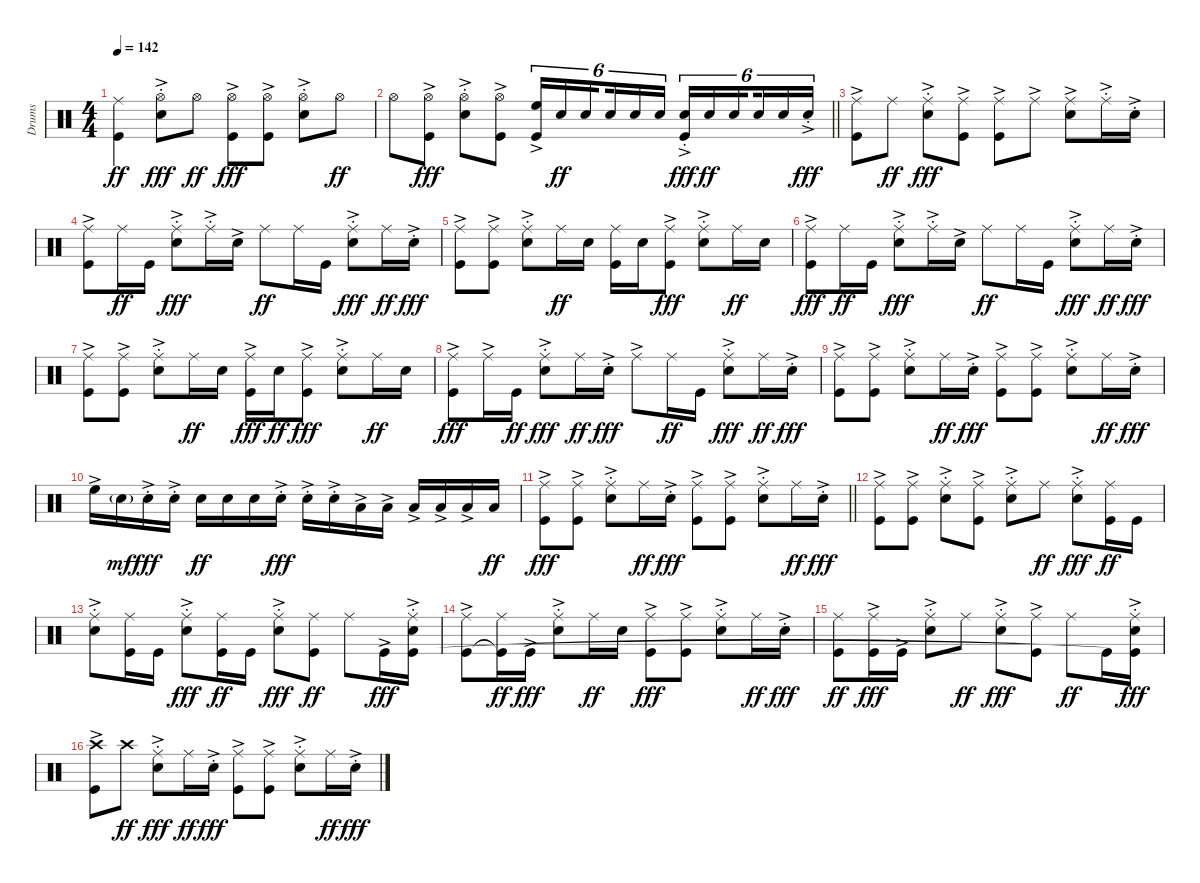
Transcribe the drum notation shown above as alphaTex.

\track ("Drums" "Drums") {instrument percussion}
\staff {score}
\articulation defaults
\ts (4 4)
\tempo 142
\clef neutral
\ks c
("Ride (middle)" "Kick (hit)").4{dy ff} ("Hi-Hat (open)"{ac st} "Snare (hit) 2"{ac st}).8{dy fff} "Hi-Hat (open)".8{dy ff} ("Hi-Hat (open)"{ac} "Kick (hit)"{ac}).8{dy fff} ("Hi-Hat (open)"{ac} "Kick (hit)"{ac}).8 ("Hi-Hat (open)"{ac st} "Snare (hit) 2"{ac st}).8 "Hi-Hat (open)".8{dy ff} |
\barLineRight lightlight "Hi-Hat (open)".8
("Hi-Hat (open)"{ac} "Kick (hit)"{ac}).8{dy fff} ("Hi-Hat (open)"{ac st} "Snare (hit) 2"{ac st}).8 ("Hi-Hat (open)"{ac} "Kick (hit)"{ac}).8 ("High Floor Tom (hit)"{ac} "Kick (hit)"{ac}).16{tu (6 4)} "Snare (hit) 2".16{tu (6 4) dy ff} "Snare (hit) 2".16{tu (6 4) beam splitsecondary} "Snare (hit) 2".16{tu (6 4)} "Snare (hit) 2".16{tu (6 4)} "Snare (hit) 2".16{tu (6 4)} ("Snare (hit) 2"{ac st} "Kick (hit)"{ac st}).16{tu (6 4) dy fff} "Snare (hit) 2".16{tu (6 4) dy ff} "Snare (hit) 2".16{tu (6 4) beam splitsecondary} "Snare (hit) 2".16{tu (6 4)} "Snare (hit) 2".16{tu (6 4)} "Snare (hit) 2"{ac st}.16{tu (6 4) dy fff} |
("Ride (middle)"{ac} "Kick (hit)"{ac}).8 "Ride (middle)".8{dy ff} ("Ride (middle)"{ac st} "Snare (hit) 2"{ac st}).8{dy fff} ("Ride (middle)"{ac} "Kick (hit)"{ac}).8 ("Ride (middle)"{ac} "Kick (hit)"{ac}).8 "Ride (middle)"{ac}.8 ("Ride (middle)"{ac} "Snare (hit) 2"{ac}).8 "Ride (middle)"{ac st}.16 "Snare (hit) 2"{ac st}.16 |
("Ride (middle)"{ac} "Kick (hit)"{ac}).8 "Ride (middle)".16{dy ff} "Kick (hit)".16 ("Ride (middle)"{ac st} "Snare (hit) 2"{ac st}).8{dy fff} "Ride (middle)"{ac st}.16 "Snare (hit) 2"{ac}.16 "Ride (middle)".8{dy ff} "Ride (middle)".16 "Kick (hit)".16 ("Ride (middle)"{ac st} "Snare (hit) 2"{ac st}).8{dy fff} "Ride (middle)".16{dy ff} "Snare (hit) 2"{ac st}.16{dy fff} |
("Ride (middle)"{ac} "Kick (hit)"{ac}).8 ("Ride (middle)"{ac} "Kick (hit)"{ac}).8 ("Ride (middle)"{ac st} "Snare (hit) 2"{ac st}).8 "Ride (middle)".16{dy ff} "Snare (hit) 2".16 ("Ride (middle)" "Kick (hit)").16 "Snare (hit) 2".16 ("Ride (middle)"{ac} "Kick (hit)"{ac}).8{dy fff} ("Ride (middle)"{ac st} "Snare (hit) 2"{ac st}).8 "Ride (middle)".16{dy ff} "Snare (hit) 2".16 |
("Ride (middle)"{ac} "Kick (hit)"{ac}).8{dy fff} "Ride (middle)".16{dy ff} "Kick (hit)".16 ("Ride (middle)"{ac st} "Snare (hit) 2"{ac st}).8{dy fff} "Ride (middle)"{ac st}.16 "Snare (hit) 2"{ac}.16 "Ride (middle)".8{dy ff} "Ride (middle)".16 "Kick (hit)".16 ("Ride (middle)"{ac st} "Snare (hit) 2"{ac st}).8{dy fff} "Ride (middle)".16{dy ff} "Snare (hit) 2"{ac st}.16{dy fff} |
("Ride (middle)"{ac} "Kick (hit)"{ac}).8 ("Ride (middle)"{ac} "Kick (hit)"{ac}).8 ("Ride (middle)"{ac st} "Snare (hit) 2"{ac st}).8 "Ride (middle)".16{dy ff} "Snare (hit) 2".16 ("Ride (middle)"{ac} "Kick (hit)"{ac}).16{dy fff} "Snare (hit) 2".16{dy ff} ("Ride (middle)"{ac} "Kick (hit)"{ac}).8{dy fff} ("Ride (middle)"{ac st} "Snare (hit) 2"{ac st}).8 "Ride (middle)".16{dy ff} "Snare (hit) 2".16 |
("Ride (middle)"{ac} "Kick (hit)"{ac}).8{dy fff} "Ride (middle)"{ac}.16 "Kick (hit)".16{dy ff} ("Ride (middle)"{ac st} "Snare (hit) 2"{ac st}).8{dy fff} "Ride (middle)".16{dy ff} "Snare (hit) 2"{ac st}.16{dy fff} "Ride (middle)"{ac}.8 "Ride (middle)".16{dy ff} "Kick (hit)".16 ("Ride (middle)"{ac st} "Snare (hit) 2"{ac st}).8{dy fff} "Ride (middle)".16{dy ff} "Snare (hit) 2"{ac st}.16{dy fff} |
("Ride (middle)"{ac} "Kick (hit)"{ac}).8 ("Ride (middle)"{ac} "Kick (hit)"{ac}).8 ("Ride (middle)"{ac st} "Snare (hit) 2"{ac st}).8 "Ride (middle)".16{dy ff} "Snare (hit) 2"{ac st}.16{dy fff} ("Ride (middle)"{ac} "Kick (hit)"{ac}).8 ("Ride (middle)"{ac} "Kick (hit)"{ac}).8 ("Ride (middle)"{ac st} "Snare (hit) 2"{ac st}).8 "Ride (middle)".16{dy ff} "Snare (hit) 2"{ac st}.16{dy fff} |
"High Floor Tom (hit)"{ac}.16 "Snare (hit) 2"{g}.16{dy mf} "Snare (hit) 2"{ac st}.16{dy fff} "Snare (hit) 2"{ac st}.16 "Snare (hit) 2".16{dy ff} "Snare (hit) 2".16 "Snare (hit) 2".16 "Snare (hit) 2"{ac st}.16{dy fff} "Snare (hit) 2"{ac st}.16 "Snare (hit) 2"{ac st}.16 "Low Floor Tom (hit)"{ac}.16 "Low Floor Tom (hit)"{ac}.16 "Low Floor Tom (hit)"{ac}.16 "Low Floor Tom (hit)"{ac}.16 "Low Floor Tom (hit)"{ac}.16 "Low Floor Tom (hit)".16{dy ff} |
\barLineRight lightlight
("Ride (middle)"{ac} "Kick (hit)"{ac}).8{dy fff} ("Ride (middle)"{ac} "Kick (hit)"{ac}).8 ("Ride (middle)"{ac st} "Snare (hit) 2"{ac st}).8 "Ride (middle)".16{dy ff} "Snare (hit) 2"{ac st}.16{dy fff} ("Ride (middle)"{ac} "Kick (hit)"{ac}).8 ("Ride (middle)"{ac} "Kick (hit)"{ac}).8 ("Ride (middle)"{ac st} "Snare (hit) 2"{ac st}).8 "Ride (middle)".16{dy ff} "Snare (hit) 2"{ac st}.16{dy fff} |
("Ride (middle)"{ac} "Kick (hit)"{ac}).8 ("Ride (middle)"{ac} "Kick (hit)"{ac}).8 ("Ride (middle)"{ac st} "Snare (hit) 2"{ac st}).8 ("Ride (middle)"{ac} "Kick (hit)"{ac}).8 ("Ride (middle)"{ac st} "Snare (hit) 2"{ac st}).8 "Ride (middle)".8{dy ff} ("Ride (middle)"{ac st} "Snare (hit) 2"{ac st}).8{dy fff} ("Ride (middle)" "Kick (hit)").16{dy ff} "Kick (hit)".16 |
("Ride (middle)"{ac st} "Snare (hit) 2").8 ("Ride (middle)" "Kick (hit)").16 "Kick (hit)".16 ("Ride (middle)"{ac st} "Snare (hit) 2"{ac st}).8{dy fff} ("Ride (middle)" "Kick (hit)").16{dy ff} "Kick (hit)".16 ("Ride (middle)"{ac st} "Snare (hit) 2"{ac st}).8{dy fff} ("Ride (middle)" "Kick (hit)").8{dy ff} "Ride (middle)".8 "Kick (hit)"{ac}.16{dy fff} ("Ride (middle)"{ac st} "Snare (hit) 2"{ac st} "Kick (hit)").16 |
("Ride (middle)"{ac} "Kick (hit)"{ac}).8 ("Ride (middle)" "Kick (hit)"{t}).16{dy ff} "Kick (hit)"{ac}.16{dy fff} ("Ride (middle)"{ac st} "Snare (hit) 2"{ac st}).8 "Ride (middle)".16{dy ff} "Snare (hit) 2".16 ("Ride (middle)"{ac} "Kick (hit)"{ac}).8{dy fff} ("Ride (middle)"{ac} "Kick (hit)"{ac}).8 ("Ride (middle)"{ac st} "Snare (hit) 2"{ac st}).8 "Ride (middle)".16{dy ff} "Snare (hit) 2"{ac st}.16{dy fff} |
("Ride (middle)" "Kick (hit)").8{dy ff} ("Ride (middle)"{ac} "Kick (hit)"{ac}).16{dy fff} "Kick (hit)"{ac}.16 ("Ride (middle)"{ac st} "Snare (hit) 2"{ac st}).8 "Ride (middle)".8{dy ff} ("Ride (middle)"{ac st} "Snare (hit) 2"{ac st}).8{dy fff} ("Ride (middle)"{ac} "Kick (hit)"{ac}).8 "Ride (middle)".8{dy ff} "Kick (hit)".16 ("Ride (middle)"{ac st} "Snare (hit) 2"{ac st} "Kick (hit)"{t}).16{dy fff} |
("Crash high (hit)"{ac} "Kick (hit)"{ac}).8 "Crash high (hit)".8{dy ff} ("Ride (middle)"{ac st} "Snare (hit) 2"{ac st}).8{dy fff} "Ride (middle)".16{dy ff} "Snare (hit) 2"{ac st}.16{dy fff} ("Ride (middle)"{ac} "Kick (hit)"{ac}).8 ("Ride (middle)"{ac} "Kick (hit)"{ac}).8 ("Ride (middle)"{ac st} "Snare (hit) 2"{ac st}).8 "Ride (middle)".16{dy ff} "Snare (hit) 2"{ac st}.16{dy fff}
